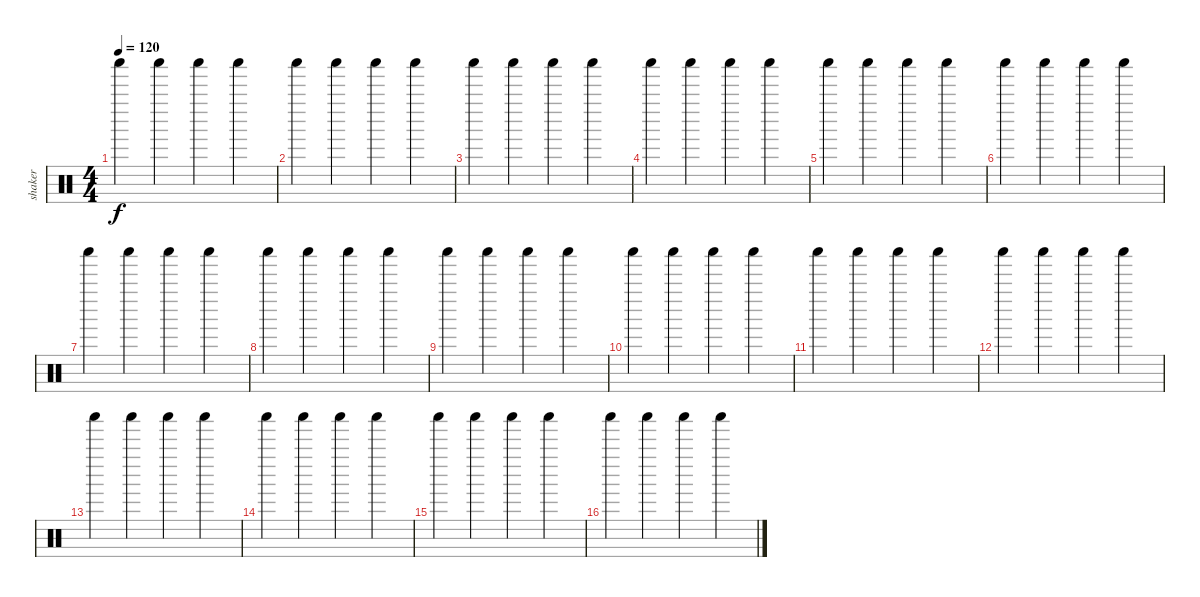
\track ("shaker" "shaker") {instrument percussion}
\staff {score}
\articulation defaults
\ts (4 4)
\tempo 120
\clef neutral
\ks c "Shaker (hit)".4{dy f} "Shaker (hit)".4 "Shaker (hit)".4 "Shaker (hit)".4
|
"Shaker (hit)".4 "Shaker (hit)".4 "Shaker (hit)".4 "Shaker (hit)".4 |
"Shaker (hit)".4 "Shaker (hit)".4 "Shaker (hit)".4 "Shaker (hit)".4 |
"Shaker (hit)".4 "Shaker (hit)".4 "Shaker (hit)".4 "Shaker (hit)".4 |
"Shaker (hit)".4 "Shaker (hit)".4 "Shaker (hit)".4 "Shaker (hit)".4 |
"Shaker (hit)".4 "Shaker (hit)".4 "Shaker (hit)".4 "Shaker (hit)".4 |
"Shaker (hit)".4 "Shaker (hit)".4 "Shaker (hit)".4 "Shaker (hit)".4 |
"Shaker (hit)".4 "Shaker (hit)".4 "Shaker (hit)".4 "Shaker (hit)".4 |
"Shaker (hit)".4 "Shaker (hit)".4 "Shaker (hit)".4 "Shaker (hit)".4 |
"Shaker (hit)".4 "Shaker (hit)".4 "Shaker (hit)".4 "Shaker (hit)".4 |
"Shaker (hit)".4 "Shaker (hit)".4 "Shaker (hit)".4 "Shaker (hit)".4 |
"Shaker (hit)".4 "Shaker (hit)".4 "Shaker (hit)".4 "Shaker (hit)".4 |
"Shaker (hit)".4 "Shaker (hit)".4 "Shaker (hit)".4 "Shaker (hit)".4 |
"Shaker (hit)".4 "Shaker (hit)".4 "Shaker (hit)".4 "Shaker (hit)".4 |
"Shaker (hit)".4 "Shaker (hit)".4 "Shaker (hit)".4 "Shaker (hit)".4 |
"Shaker (hit)".4 "Shaker (hit)".4 "Shaker (hit)".4 "Shaker (hit)".4
